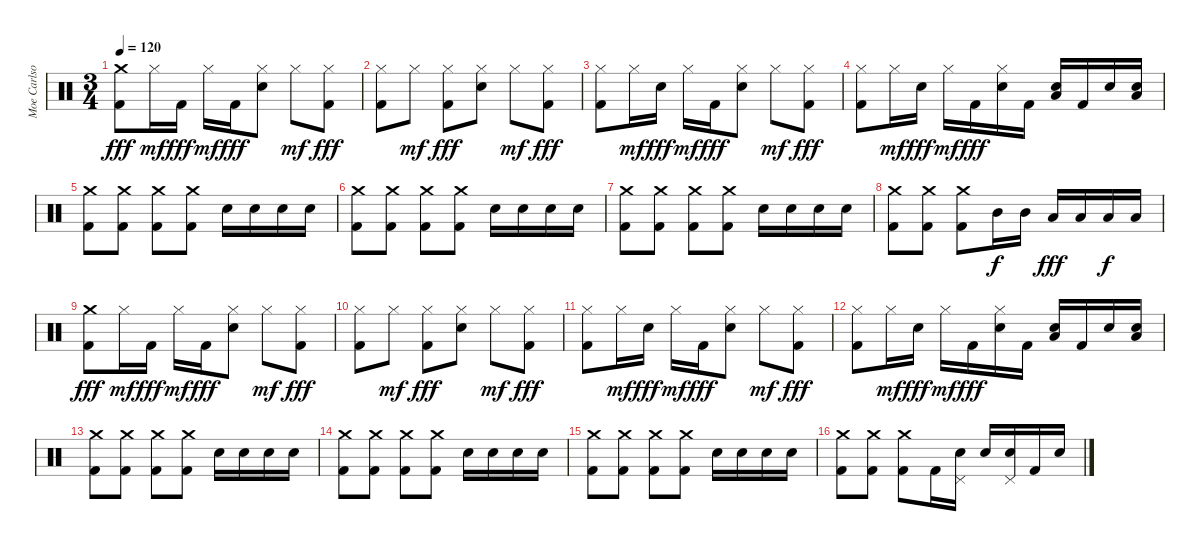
\track ("Moe Carlson" "Moe Carlso") {instrument percussion}
\staff {score}
\articulation defaults
\ts (3 4)
\tempo 120
\clef neutral
\ks c
("Crash medium (hit)" "Kick (hit) 2").8{dy fff} "Hi-Hat (closed)".16{dy mf} "Kick (hit) 2".16{dy fff} "Hi-Hat (closed)".16{dy mf} "Kick (hit) 2".16{dy fff} ("Hi-Hat (closed)" "Electric Snare (hit)").8 "Hi-Hat (closed)".8{dy mf} ("Hi-Hat (closed)" "Kick (hit) 2").8{dy fff} |
("Hi-Hat (closed)" "Kick (hit) 2").8 "Hi-Hat (closed)".8{dy mf} ("Hi-Hat (closed)" "Kick (hit) 2").8{dy fff} ("Hi-Hat (closed)" "Electric Snare (hit)").8 "Hi-Hat (closed)".8{dy mf} ("Hi-Hat (closed)" "Kick (hit) 2").8{dy fff} |
("Hi-Hat (closed)" "Kick (hit) 2").8 "Hi-Hat (closed)".16{dy mf} "Electric Snare (hit)".16{dy fff} "Hi-Hat (closed)".16{dy mf} "Kick (hit) 2".16{dy fff} ("Hi-Hat (closed)" "Electric Snare (hit)").8 "Hi-Hat (closed)".8{dy mf} ("Hi-Hat (closed)" "Kick (hit) 2").8{dy fff} |
("Hi-Hat (closed)" "Kick (hit) 2").8 "Hi-Hat (closed)".16{dy mf} "Electric Snare (hit)".16{dy fff} "Hi-Hat (closed)".16{dy mf} "Kick (hit) 2".16{dy fff} ("Hi-Hat (closed)" "Electric Snare (hit)").16 "Kick (hit) 2".16 ("Electric Snare (hit)" "Low Floor Tom (hit)").16 "Kick (hit) 2".16 "Electric Snare (hit)".16 ("Electric Snare (hit)" "Low Floor Tom (hit)").16 |
("Crash medium (hit)" "Kick (hit) 2").8 ("Crash medium (hit)" "Kick (hit) 2").8 ("Crash medium (hit)" "Kick (hit) 2").8 ("Crash medium (hit)" "Kick (hit) 2").8 "Electric Snare (hit)".16 "Electric Snare (hit)".16 "Electric Snare (hit)".16 "Electric Snare (hit)".16 |
("Crash medium (hit)" "Kick (hit) 2").8 ("Crash medium (hit)" "Kick (hit) 2").8 ("Crash medium (hit)" "Kick (hit) 2").8 ("Crash medium (hit)" "Kick (hit) 2").8 "Electric Snare (hit)".16 "Electric Snare (hit)".16 "Electric Snare (hit)".16 "Electric Snare (hit)".16 |
("Crash medium (hit)" "Kick (hit) 2").8 ("Crash medium (hit)" "Kick (hit) 2").8 ("Crash medium (hit)" "Kick (hit) 2").8 ("Crash medium (hit)" "Kick (hit) 2").8 "Electric Snare (hit)".16 "Electric Snare (hit)".16 "Electric Snare (hit)".16 "Electric Snare (hit)".16 |
("Crash medium (hit)" "Kick (hit) 2").8 ("Crash medium (hit)" "Kick (hit) 2").8 ("Crash medium (hit)" "Kick (hit) 2").8 "Mid Tom (hit)".16{dy f} "Mid Tom (hit)".16 "Low Tom (hit)".16{dy fff} "Low Tom (hit)".16 "Low Floor Tom (hit)".16{dy f} "Low Floor Tom (hit)".16 |
("Crash medium (hit)" "Kick (hit) 2").8{dy fff} "Hi-Hat (closed)".16{dy mf} "Kick (hit) 2".16{dy fff} "Hi-Hat (closed)".16{dy mf} "Kick (hit) 2".16{dy fff} ("Hi-Hat (closed)" "Electric Snare (hit)").8 "Hi-Hat (closed)".8{dy mf} ("Hi-Hat (closed)" "Kick (hit) 2").8{dy fff} |
("Hi-Hat (closed)" "Kick (hit) 2").8 "Hi-Hat (closed)".8{dy mf} ("Hi-Hat (closed)" "Kick (hit) 2").8{dy fff} ("Hi-Hat (closed)" "Electric Snare (hit)").8 "Hi-Hat (closed)".8{dy mf} ("Hi-Hat (closed)" "Kick (hit) 2").8{dy fff} |
("Hi-Hat (closed)" "Kick (hit) 2").8 "Hi-Hat (closed)".16{dy mf} "Electric Snare (hit)".16{dy fff} "Hi-Hat (closed)".16{dy mf} "Kick (hit) 2".16{dy fff} ("Hi-Hat (closed)" "Electric Snare (hit)").8 "Hi-Hat (closed)".8{dy mf} ("Hi-Hat (closed)" "Kick (hit) 2").8{dy fff} |
("Hi-Hat (closed)" "Kick (hit) 2").8 "Hi-Hat (closed)".16{dy mf} "Electric Snare (hit)".16{dy fff} "Hi-Hat (closed)".16{dy mf} "Kick (hit) 2".16{dy fff} ("Hi-Hat (closed)" "Electric Snare (hit)").16 "Kick (hit) 2".16 ("Electric Snare (hit)" "Low Floor Tom (hit)").16 "Kick (hit) 2".16 "Electric Snare (hit)".16 ("Electric Snare (hit)" "Low Floor Tom (hit)").16 |
("Crash medium (hit)" "Kick (hit) 2").8 ("Crash medium (hit)" "Kick (hit) 2").8 ("Crash medium (hit)" "Kick (hit) 2").8 ("Crash medium (hit)" "Kick (hit) 2").8 "Electric Snare (hit)".16 "Electric Snare (hit)".16 "Electric Snare (hit)".16 "Electric Snare (hit)".16 |
("Crash medium (hit)" "Kick (hit) 2").8 ("Crash medium (hit)" "Kick (hit) 2").8 ("Crash medium (hit)" "Kick (hit) 2").8 ("Crash medium (hit)" "Kick (hit) 2").8 "Electric Snare (hit)".16 "Electric Snare (hit)".16 "Electric Snare (hit)".16 "Electric Snare (hit)".16 |
("Crash medium (hit)" "Kick (hit) 2").8 ("Crash medium (hit)" "Kick (hit) 2").8 ("Crash medium (hit)" "Kick (hit) 2").8 ("Crash medium (hit)" "Kick (hit) 2").8 "Electric Snare (hit)".16 "Electric Snare (hit)".16 "Electric Snare (hit)".16 "Electric Snare (hit)".16 |
("Crash medium (hit)" "Kick (hit) 2").8 ("Crash medium (hit)" "Kick (hit) 2").8 ("Crash medium (hit)" "Kick (hit) 2").8 "Kick (hit) 2".16 ("Electric Snare (hit)" "Pedal Hi-Hat (hit)").16 "Electric Snare (hit)".16 ("Electric Snare (hit)" "Pedal Hi-Hat (hit)").16 "Kick (hit) 2".16 "Electric Snare (hit)".16
